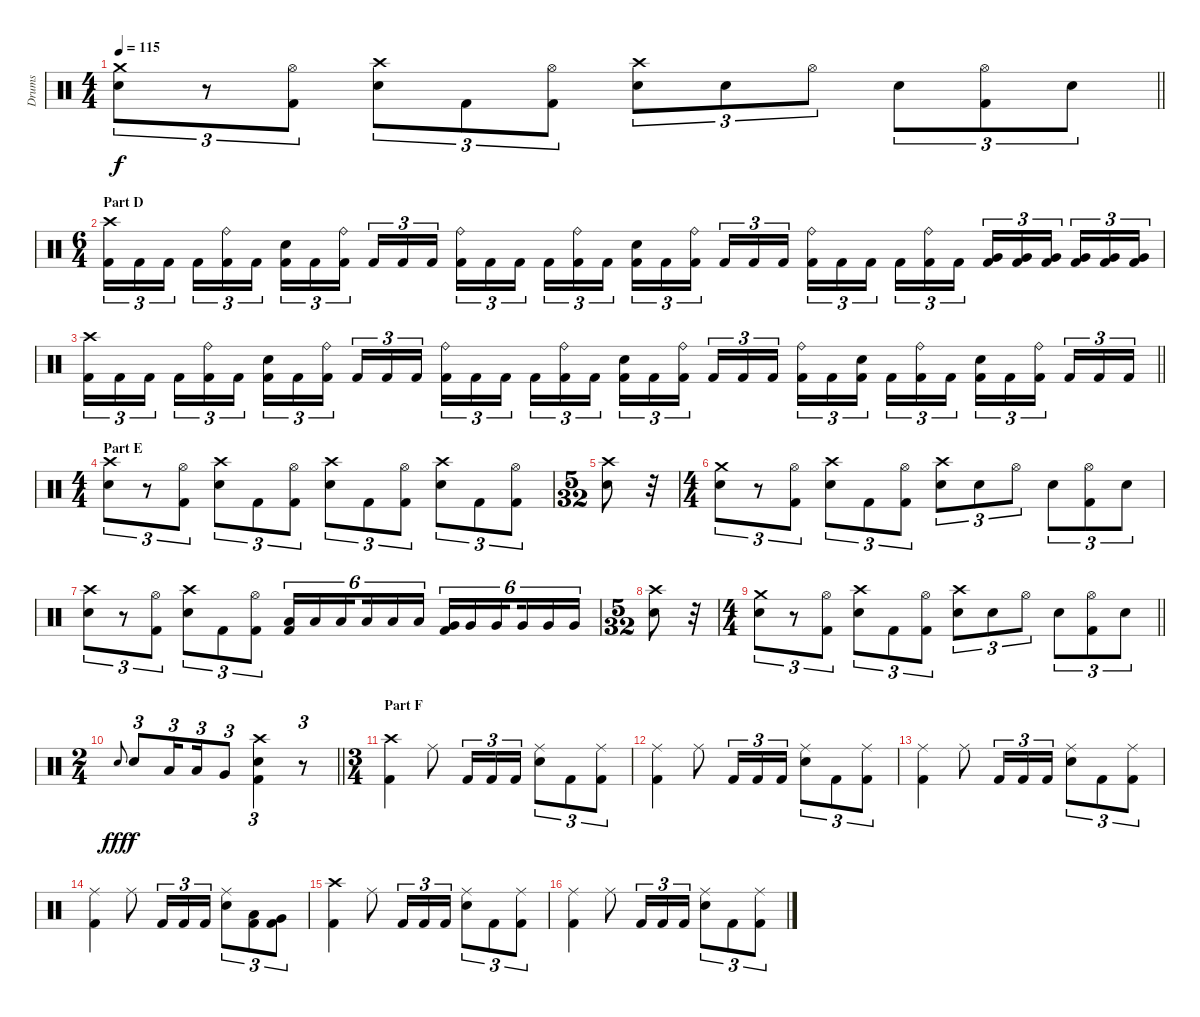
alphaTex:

\track ("Drums" "Drums") {instrument percussion}
\staff {score}
\articulation defaults
\ts (4 4)
\tempo 115
\clef neutral
\barLineRight lightlight
\ks c
("Crash medium (hit)" "Snare (hit) 2").8{tu (3 2) dy f} r.8{tu (3 2)} ("Hi-Hat (open)" "Kick (hit) 2").8{tu (3 2)} ("Crash high (hit)" "Snare (hit) 2").8{tu (3 2)} "Kick (hit) 2".8{tu (3 2)} ("Kick (hit) 2" "Hi-Hat (open)").8{tu (3 2)} ("Snare (hit) 2" "Crash high (hit)").8{tu (3 2)} "Snare (hit) 2".8{tu (3 2)} "Hi-Hat (open)".8{tu (3 2)} "Snare (hit) 2".8{tu (3 2)} ("Hi-Hat (open)" "Kick (hit) 2").8{tu (3 2)} "Snare (hit) 2".8{tu (3 2)} |
\ts (6 4)
\section ("" "Part D")
("Kick (hit) 2" "Crash high (hit)").16{tu (3 2)} "Kick (hit) 2".16{tu (3 2)} "Kick (hit) 2".16{tu (3 2) beam splitsecondary} "Kick (hit) 2".16{tu (3 2)} ("Kick (hit) 2" "Ride (bell)").16{tu (3 2)} "Kick (hit) 2".16{tu (3 2) beam splitsecondary} ("Kick (hit) 2" "Snare (hit) 2").16{tu (3 2)} "Kick (hit) 2".16{tu (3 2)} ("Kick (hit) 2" "Ride (bell)").16{tu (3 2) beam splitsecondary} "Kick (hit) 2".16{tu (3 2)} "Kick (hit) 2".16{tu (3 2)} "Kick (hit) 2".16{tu (3 2) beam splitsecondary} ("Kick (hit) 2" "Ride (bell)").16{tu (3 2)} "Kick (hit) 2".16{tu (3 2)} "Kick (hit) 2".16{tu (3 2) beam splitsecondary} "Kick (hit) 2".16{tu (3 2)} ("Kick (hit) 2" "Ride (bell)").16{tu (3 2)} "Kick (hit) 2".16{tu (3 2)} ("Kick (hit) 2" "Snare (hit) 2").16{tu (3 2)} "Kick (hit) 2".16{tu (3 2)} ("Kick (hit) 2" "Ride (bell)").16{tu (3 2) beam splitsecondary} "Kick (hit) 2".16{tu (3 2)} "Kick (hit) 2".16{tu (3 2)} "Kick (hit) 2".16{tu (3 2) beam splitsecondary} ("Kick (hit) 2" "Ride (bell)").16{tu (3 2)} "Kick (hit) 2".16{tu (3 2)} "Kick (hit) 2".16{tu (3 2) beam splitsecondary} "Kick (hit) 2".16{tu (3 2)} ("Kick (hit) 2" "Ride (bell)").16{tu (3 2)} "Kick (hit) 2".16{tu (3 2) beam splitsecondary} ("Very Low Tom (hit)" "Kick (hit) 2").16{tu (3 2)} ("Very Low Tom (hit)" "Kick (hit) 2").16{tu (3 2)} ("Very Low Tom (hit)" "Kick (hit) 2").16{tu (3 2) beam splitsecondary} ("Very Low Tom (hit)" "Kick (hit) 2").16{tu (3 2)} ("Very Low Tom (hit)" "Kick (hit) 2").16{tu (3 2)} ("Very Low Tom (hit)" "Kick (hit) 2").16{tu (3 2)} |
\barLineRight lightlight
("Kick (hit) 2" "Crash high (hit)").16{tu (3 2)} "Kick (hit) 2".16{tu (3 2)} "Kick (hit) 2".16{tu (3 2) beam splitsecondary} "Kick (hit) 2".16{tu (3 2)} ("Kick (hit) 2" "Ride (bell)").16{tu (3 2)} "Kick (hit) 2".16{tu (3 2) beam splitsecondary} ("Kick (hit) 2" "Snare (hit) 2").16{tu (3 2)} "Kick (hit) 2".16{tu (3 2)} ("Kick (hit) 2" "Ride (bell)").16{tu (3 2) beam splitsecondary} "Kick (hit) 2".16{tu (3 2)} "Kick (hit) 2".16{tu (3 2)} "Kick (hit) 2".16{tu (3 2) beam splitsecondary} ("Kick (hit) 2" "Ride (bell)").16{tu (3 2)} "Kick (hit) 2".16{tu (3 2)} "Kick (hit) 2".16{tu (3 2) beam splitsecondary} "Kick (hit) 2".16{tu (3 2)} ("Kick (hit) 2" "Ride (bell)").16{tu (3 2)} "Kick (hit) 2".16{tu (3 2)} ("Kick (hit) 2" "Snare (hit) 2").16{tu (3 2)} "Kick (hit) 2".16{tu (3 2)} ("Kick (hit) 2" "Ride (bell)").16{tu (3 2) beam splitsecondary} "Kick (hit) 2".16{tu (3 2)} "Kick (hit) 2".16{tu (3 2)} "Kick (hit) 2".16{tu (3 2) beam splitsecondary} ("Kick (hit) 2" "Ride (bell)").16{tu (3 2)} "Kick (hit) 2".16{tu (3 2)} ("Kick (hit) 2" "Snare (hit) 2").16{tu (3 2) beam splitsecondary} "Kick (hit) 2".16{tu (3 2)} ("Kick (hit) 2" "Ride (bell)").16{tu (3 2)} "Kick (hit) 2".16{tu (3 2) beam splitsecondary} ("Snare (hit) 2" "Kick (hit) 2").16{tu (3 2)} "Kick (hit) 2".16{tu (3 2)} ("Ride (bell)" "Kick (hit) 2").16{tu (3 2) beam splitsecondary} "Kick (hit) 2".16{tu (3 2)} "Kick (hit) 2".16{tu (3 2)} "Kick (hit) 2".16{tu (3 2)} |
\ts (4 4)
\section ("" "Part E")
("Crash high (hit)" "Snare (hit) 2").8{tu (3 2)} r.8{tu (3 2)} ("Hi-Hat (open)" "Kick (hit) 2").8{tu (3 2)} ("Crash high (hit)" "Snare (hit) 2").8{tu (3 2)} "Kick (hit) 2".8{tu (3 2)} ("Kick (hit) 2" "Hi-Hat (open)").8{tu (3 2)} ("Snare (hit) 2" "Crash high (hit)").8{tu (3 2)} "Kick (hit) 2".8{tu (3 2)} ("Kick (hit) 2" "Hi-Hat (open)").8{tu (3 2)} ("Snare (hit) 2" "Crash high (hit)").8{tu (3 2)} "Kick (hit) 2".8{tu (3 2)} ("Kick (hit) 2" "Hi-Hat (open)").8{tu (3 2)} |
\ts (5 32)
("Snare (hit) 2" "Crash high (hit)").8 r.32 |
\ts (4 4)
("Crash medium (hit)" "Snare (hit) 2").8{tu (3 2)} r.8{tu (3 2)} ("Hi-Hat (open)" "Kick (hit) 2").8{tu (3 2)} ("Crash high (hit)" "Snare (hit) 2").8{tu (3 2)} "Kick (hit) 2".8{tu (3 2)} ("Kick (hit) 2" "Hi-Hat (open)").8{tu (3 2)} ("Snare (hit) 2" "Crash high (hit)").8{tu (3 2)} "Snare (hit) 2".8{tu (3 2)} "Hi-Hat (open)".8{tu (3 2)} "Snare (hit) 2".8{tu (3 2)} ("Hi-Hat (open)" "Kick (hit) 2").8{tu (3 2)} "Snare (hit) 2".8{tu (3 2)} |
("Crash high (hit)" "Snare (hit) 2").8{tu (3 2)} r.8{tu (3 2)} ("Hi-Hat (open)" "Kick (hit) 2").8{tu (3 2)} ("Crash high (hit)" "Snare (hit) 2").8{tu (3 2)} "Kick (hit) 2".8{tu (3 2)} ("Kick (hit) 2" "Hi-Hat (open)").8{tu (3 2)} ("Kick (hit) 2" "Low Tom (hit)").16{tu (6 4)} "Low Tom (hit)".16{tu (6 4)} "Low Tom (hit)".16{tu (6 4) beam splitsecondary} "Low Tom (hit)".16{tu (6 4)} "Low Tom (hit)".16{tu (6 4)} "Low Tom (hit)".16{tu (6 4)} ("Kick (hit) 2" "Very Low Tom (hit)").16{tu (6 4)} "Very Low Tom (hit)".16{tu (6 4)} "Very Low Tom (hit)".16{tu (6 4) beam splitsecondary} "Very Low Tom (hit)".16{tu (6 4)} "Very Low Tom (hit)".16{tu (6 4)} "Very Low Tom (hit)".16{tu (6 4)} |
\ts (5 32)
("Snare (hit) 2" "Crash high (hit)").8 r.32 |
\ts (4 4)
\barLineRight lightlight
("Crash medium (hit)" "Snare (hit) 2").8{tu (3 2)} r.8{tu (3 2)} ("Hi-Hat (open)" "Kick (hit) 2").8{tu (3 2)} ("Crash high (hit)" "Snare (hit) 2").8{tu (3 2)} "Kick (hit) 2".8{tu (3 2)} ("Kick (hit) 2" "Hi-Hat (open)").8{tu (3 2)} ("Snare (hit) 2" "Crash high (hit)").8{tu (3 2)} "Snare (hit) 2".8{tu (3 2)} "Hi-Hat (open)".8{tu (3 2)} "Snare (hit) 2".8{tu (3 2)} ("Hi-Hat (open)" "Kick (hit) 2").8{tu (3 2)} "Snare (hit) 2".8{tu (3 2)} |
\ts (2 4)
\barLineRight lightlight "Snare (hit) 2".8{gr onbeat dy fff} "Snare (hit) 2".8{tu (3 2) dy f} "Low Tom (hit)".16{tu (3 2) beam splitsecondary} "Low Tom (hit)".16{tu (3 2)} "Very Low Tom (hit)".8{tu (3 2)}
("Crash high (hit)" "Kick (hit) 2" "Snare (hit) 2").4{tu (3 2)} r.8{tu (3 2)} |
\ts (3 4)
\section ("" "Part F")
("Crash high (hit)" "Kick (hit) 2").4 "Ride (middle)".8 "Kick (hit) 2".16{tu (3 2)} "Kick (hit) 2".16{tu (3 2)} "Kick (hit) 2".16{tu (3 2)} ("Snare (hit) 2" "Ride (middle)").8{tu (3 2)} "Kick (hit) 2".8{tu (3 2)} ("Kick (hit) 2" "Ride (middle)").8{tu (3 2)} |
("Ride (middle)" "Kick (hit) 2").4 "Ride (middle)".8 "Kick (hit) 2".16{tu (3 2)} "Kick (hit) 2".16{tu (3 2)} "Kick (hit) 2".16{tu (3 2)} ("Snare (hit) 2" "Ride (middle)").8{tu (3 2)} "Kick (hit) 2".8{tu (3 2)} ("Kick (hit) 2" "Ride (middle)").8{tu (3 2)} |
("Ride (middle)" "Kick (hit) 2").4 "Ride (middle)".8 "Kick (hit) 2".16{tu (3 2)} "Kick (hit) 2".16{tu (3 2)} "Kick (hit) 2".16{tu (3 2)} ("Snare (hit) 2" "Ride (middle)").8{tu (3 2)} "Kick (hit) 2".8{tu (3 2)} ("Kick (hit) 2" "Ride (middle)").8{tu (3 2)} |
("Ride (middle)" "Kick (hit) 2").4 "Ride (middle)".8 "Kick (hit) 2".16{tu (3 2)} "Kick (hit) 2".16{tu (3 2)} "Kick (hit) 2".16{tu (3 2)} ("Snare (hit) 2" "Ride (middle)").8{tu (3 2)} ("Kick (hit) 2" "Low Tom (hit)").8{tu (3 2)} ("Kick (hit) 2" "Very Low Tom (hit)").8{tu (3 2)} |
("Crash high (hit)" "Kick (hit) 2").4 "Ride (middle)".8 "Kick (hit) 2".16{tu (3 2)} "Kick (hit) 2".16{tu (3 2)} "Kick (hit) 2".16{tu (3 2)} ("Snare (hit) 2" "Ride (middle)").8{tu (3 2)} "Kick (hit) 2".8{tu (3 2)} ("Kick (hit) 2" "Ride (middle)").8{tu (3 2)} |
("Ride (middle)" "Kick (hit) 2").4 "Ride (middle)".8 "Kick (hit) 2".16{tu (3 2)} "Kick (hit) 2".16{tu (3 2)} "Kick (hit) 2".16{tu (3 2)} ("Snare (hit) 2" "Ride (middle)").8{tu (3 2)} "Kick (hit) 2".8{tu (3 2)} ("Kick (hit) 2" "Ride (middle)").8{tu (3 2)}
